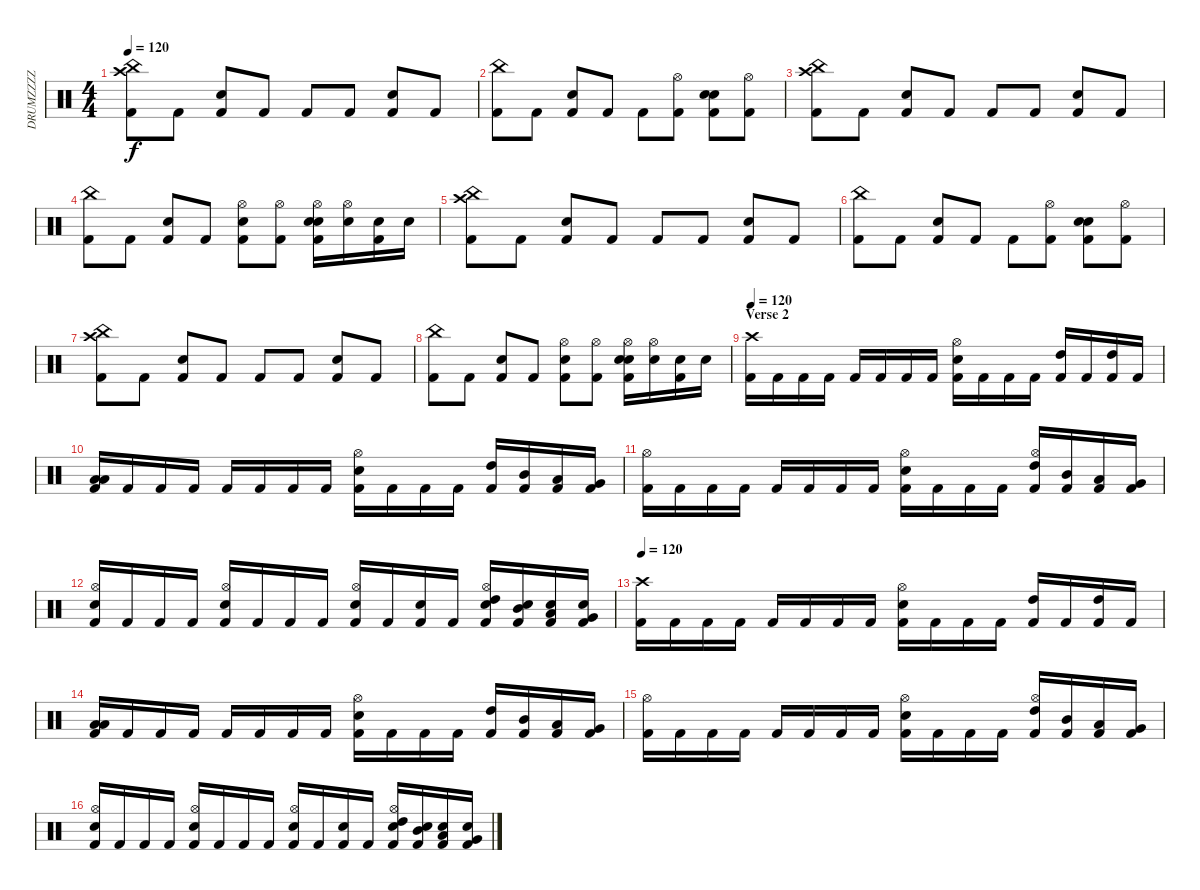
\track ("DRUMZZZZ" "DRUMZZZZ") {instrument percussion}
\staff {score}
\articulation defaults
\ts (4 4)
\tempo 120
\clef neutral
\ks c
("Crash high (hit)" "China (hit)" "Kick (hit) 2").8{dy f} "Kick (hit) 2".8 ("Kick (hit) 2" "Snare (hit) 2").8 "Kick (hit) 2".8 "Kick (hit) 2".8 "Kick (hit) 2".8 ("Kick (hit) 2" "Snare (hit) 2").8 "Kick (hit) 2".8 |
("China (hit)" "Kick (hit) 2").8 "Kick (hit) 2".8 ("Kick (hit) 2" "Snare (hit) 2").8 "Kick (hit) 2".8 "Kick (hit) 2".8 ("Hi-Hat (open)" "Kick (hit) 2").8 ("Kick (hit) 2" "Electric Snare (hit)" "Snare (hit) 2").8 ("Hi-Hat (open)" "Kick (hit) 2").8 |
("Crash high (hit)" "China (hit)" "Kick (hit) 2").8 "Kick (hit) 2".8 ("Kick (hit) 2" "Snare (hit) 2").8 "Kick (hit) 2".8 "Kick (hit) 2".8 "Kick (hit) 2".8 ("Kick (hit) 2" "Snare (hit) 2").8 "Kick (hit) 2".8 |
("China (hit)" "Kick (hit) 2").8 "Kick (hit) 2".8 ("Kick (hit) 2" "Snare (hit) 2").8 "Kick (hit) 2".8 ("Hi-Hat (open)" "Kick (hit) 2" "Electric Snare (hit)").8 ("Hi-Hat (open)" "Kick (hit) 2").8 ("Hi-Hat (open)" "Kick (hit) 2" "Electric Snare (hit)" "Snare (hit) 2").16 ("Hi-Hat (open)" "Electric Snare (hit)").16 ("Kick (hit) 2" "Electric Snare (hit)").16 "Electric Snare (hit)".16 |
("Crash high (hit)" "China (hit)" "Kick (hit) 2").8 "Kick (hit) 2".8 ("Kick (hit) 2" "Snare (hit) 2").8 "Kick (hit) 2".8 "Kick (hit) 2".8 "Kick (hit) 2".8 ("Kick (hit) 2" "Snare (hit) 2").8 "Kick (hit) 2".8 |
("China (hit)" "Kick (hit) 2").8 "Kick (hit) 2".8 ("Kick (hit) 2" "Snare (hit) 2").8 "Kick (hit) 2".8 "Kick (hit) 2".8 ("Hi-Hat (open)" "Kick (hit) 2").8 ("Kick (hit) 2" "Electric Snare (hit)" "Snare (hit) 2").8 ("Hi-Hat (open)" "Kick (hit) 2").8 |
("Crash high (hit)" "China (hit)" "Kick (hit) 2").8 "Kick (hit) 2".8 ("Kick (hit) 2" "Snare (hit) 2").8 "Kick (hit) 2".8 "Kick (hit) 2".8 "Kick (hit) 2".8 ("Kick (hit) 2" "Snare (hit) 2").8 "Kick (hit) 2".8 |
("China (hit)" "Kick (hit) 2").8 "Kick (hit) 2".8 ("Kick (hit) 2" "Snare (hit) 2").8 "Kick (hit) 2".8 ("Hi-Hat (open)" "Kick (hit) 2" "Electric Snare (hit)").8 ("Hi-Hat (open)" "Kick (hit) 2").8 ("Hi-Hat (open)" "Kick (hit) 2" "Electric Snare (hit)" "Snare (hit) 2").16 ("Hi-Hat (open)" "Electric Snare (hit)").16 ("Kick (hit) 2" "Electric Snare (hit)").16 "Electric Snare (hit)".16 |
\section ("" "Verse 2")
\tempo 120
("Crash high (hit)" "Kick (hit) 2").16 "Kick (hit) 2".16 "Kick (hit) 2".16 "Kick (hit) 2".16 "Kick (hit) 2".16 "Kick (hit) 2".16 "Kick (hit) 2".16 "Kick (hit) 2".16 ("Hi-Hat (open)" "Kick (hit) 2" "Snare (hit) 2").16 "Kick (hit) 2".16 "Kick (hit) 2".16 "Kick (hit) 2".16 ("Kick (hit) 2" "High Tom (hit)").16 "Kick (hit) 2".16 ("Kick (hit) 2" "High Tom (hit)").16 "Kick (hit) 2".16 |
("Kick (hit) 2" "Low Tom (hit)" "Low Tom (hit)").16 "Kick (hit) 2".16 "Kick (hit) 2".16 "Kick (hit) 2".16 "Kick (hit) 2".16 "Kick (hit) 2".16 "Kick (hit) 2".16 "Kick (hit) 2".16 ("Hi-Hat (open)" "Kick (hit) 2" "Snare (hit) 2").16 "Kick (hit) 2".16 "Kick (hit) 2".16 "Kick (hit) 2".16 ("Kick (hit) 2" "High Tom (hit)").16 ("Kick (hit) 2" "Mid Tom (hit)").16 ("Kick (hit) 2" "Low Tom (hit)").16 ("Kick (hit) 2" "Very Low Tom (hit)").16 |
("Hi-Hat (open)" "Kick (hit) 2").16 "Kick (hit) 2".16 "Kick (hit) 2".16 "Kick (hit) 2".16 "Kick (hit) 2".16 "Kick (hit) 2".16 "Kick (hit) 2".16 "Kick (hit) 2".16 ("Hi-Hat (open)" "Kick (hit) 2" "Snare (hit) 2").16 "Kick (hit) 2".16 "Kick (hit) 2".16 "Kick (hit) 2".16 ("Hi-Hat (open)" "Kick (hit) 2" "High Tom (hit)").16 ("Kick (hit) 2" "Mid Tom (hit)").16 ("Kick (hit) 2" "Low Tom (hit)").16 ("Kick (hit) 2" "Very Low Tom (hit)").16 |
("Hi-Hat (open)" "Kick (hit) 2" "Electric Snare (hit)").16 "Kick (hit) 2".16 "Kick (hit) 2".16 "Kick (hit) 2".16 ("Hi-Hat (open)" "Kick (hit) 2" "Electric Snare (hit)").16 "Kick (hit) 2".16 "Kick (hit) 2".16 "Kick (hit) 2".16 ("Hi-Hat (open)" "Kick (hit) 2" "Electric Snare (hit)").16 "Kick (hit) 2".16 ("Kick (hit) 2" "Electric Snare (hit)").16 "Kick (hit) 2".16 ("Hi-Hat (open)" "Kick (hit) 2" "High Tom (hit)" "Electric Snare (hit)").16 ("Kick (hit) 2" "Mid Tom (hit)" "Electric Snare (hit)").16 ("Kick (hit) 2" "Low Tom (hit)" "Electric Snare (hit)").16 ("Kick (hit) 2" "Very Low Tom (hit)" "Electric Snare (hit)").16 |
\tempo 120
("Crash high (hit)" "Kick (hit) 2").16 "Kick (hit) 2".16 "Kick (hit) 2".16 "Kick (hit) 2".16 "Kick (hit) 2".16 "Kick (hit) 2".16 "Kick (hit) 2".16 "Kick (hit) 2".16 ("Hi-Hat (open)" "Kick (hit) 2" "Snare (hit) 2").16 "Kick (hit) 2".16 "Kick (hit) 2".16 "Kick (hit) 2".16 ("Kick (hit) 2" "High Tom (hit)").16 "Kick (hit) 2".16 ("Kick (hit) 2" "High Tom (hit)").16 "Kick (hit) 2".16 |
("Kick (hit) 2" "Low Tom (hit)" "Low Tom (hit)").16 "Kick (hit) 2".16 "Kick (hit) 2".16 "Kick (hit) 2".16 "Kick (hit) 2".16 "Kick (hit) 2".16 "Kick (hit) 2".16 "Kick (hit) 2".16 ("Hi-Hat (open)" "Kick (hit) 2" "Snare (hit) 2").16 "Kick (hit) 2".16 "Kick (hit) 2".16 "Kick (hit) 2".16 ("Kick (hit) 2" "High Tom (hit)").16 ("Kick (hit) 2" "Mid Tom (hit)").16 ("Kick (hit) 2" "Low Tom (hit)").16 ("Kick (hit) 2" "Very Low Tom (hit)").16 |
("Hi-Hat (open)" "Kick (hit) 2").16 "Kick (hit) 2".16 "Kick (hit) 2".16 "Kick (hit) 2".16 "Kick (hit) 2".16 "Kick (hit) 2".16 "Kick (hit) 2".16 "Kick (hit) 2".16 ("Hi-Hat (open)" "Kick (hit) 2" "Snare (hit) 2").16 "Kick (hit) 2".16 "Kick (hit) 2".16 "Kick (hit) 2".16 ("Hi-Hat (open)" "Kick (hit) 2" "High Tom (hit)").16 ("Kick (hit) 2" "Mid Tom (hit)").16 ("Kick (hit) 2" "Low Tom (hit)").16 ("Kick (hit) 2" "Very Low Tom (hit)").16 |
("Hi-Hat (open)" "Kick (hit) 2" "Electric Snare (hit)").16 "Kick (hit) 2".16 "Kick (hit) 2".16 "Kick (hit) 2".16 ("Hi-Hat (open)" "Kick (hit) 2" "Electric Snare (hit)").16 "Kick (hit) 2".16 "Kick (hit) 2".16 "Kick (hit) 2".16 ("Hi-Hat (open)" "Kick (hit) 2" "Electric Snare (hit)").16 "Kick (hit) 2".16 ("Kick (hit) 2" "Electric Snare (hit)").16 "Kick (hit) 2".16 ("Hi-Hat (open)" "Kick (hit) 2" "High Tom (hit)" "Electric Snare (hit)").16 ("Kick (hit) 2" "Mid Tom (hit)" "Electric Snare (hit)").16 ("Kick (hit) 2" "Low Tom (hit)" "Electric Snare (hit)").16 ("Kick (hit) 2" "Very Low Tom (hit)" "Electric Snare (hit)").16
